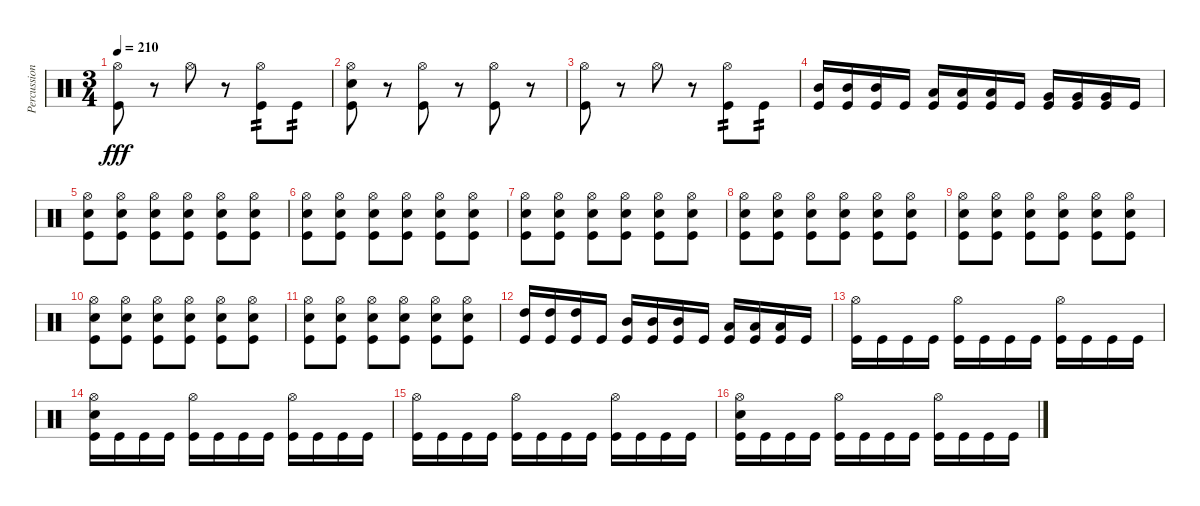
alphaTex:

\track ("Percussion" "Percussion") {instrument percussion}
\staff {score}
\articulation defaults
\ts (3 4)
\tempo 210
\clef neutral
\ks c
("Hi-Hat (open)" "Kick (hit)").8{dy fff} r.8 "Hi-Hat (open)".8 r.8 ("Hi-Hat (open)" "Kick (hit)").8{tp 2} "Kick (hit)".8{tp 2} |
("Hi-Hat (open)" "Electric Snare (hit)" "Kick (hit)").8 r.8 ("Hi-Hat (open)" "Kick (hit)").8 r.8 ("Hi-Hat (open)" "Kick (hit)").8 r.8 |
("Hi-Hat (open)" "Kick (hit)").8 r.8 "Hi-Hat (open)".8 r.8 ("Hi-Hat (open)" "Kick (hit)").8{tp 2} "Kick (hit)".8{tp 2} |
("Mid Tom (hit)" "Kick (hit)").16 ("Mid Tom (hit)" "Kick (hit)").16 ("Mid Tom (hit)" "Kick (hit)").16 "Kick (hit)".16 ("Low Tom (hit)" "Kick (hit)").16 ("Low Tom (hit)" "Kick (hit)").16 ("Low Tom (hit)" "Kick (hit)").16 "Kick (hit)".16 ("Very Low Tom (hit)" "Kick (hit)").16 ("Very Low Tom (hit)" "Kick (hit)").16 ("Very Low Tom (hit)" "Kick (hit)").16 "Kick (hit)".16 |
("Hi-Hat (open)" "Electric Snare (hit)" "Kick (hit)").8 ("Hi-Hat (open)" "Electric Snare (hit)" "Kick (hit)").8 ("Hi-Hat (open)" "Electric Snare (hit)" "Kick (hit)").8 ("Hi-Hat (open)" "Electric Snare (hit)" "Kick (hit)").8 ("Hi-Hat (open)" "Electric Snare (hit)" "Kick (hit)").8 ("Hi-Hat (open)" "Electric Snare (hit)" "Kick (hit)").8 |
("Hi-Hat (open)" "Electric Snare (hit)" "Kick (hit)").8 ("Hi-Hat (open)" "Electric Snare (hit)" "Kick (hit)").8 ("Hi-Hat (open)" "Electric Snare (hit)" "Kick (hit)").8 ("Hi-Hat (open)" "Electric Snare (hit)" "Kick (hit)").8 ("Hi-Hat (open)" "Electric Snare (hit)" "Kick (hit)").8 ("Hi-Hat (open)" "Electric Snare (hit)" "Kick (hit)").8 |
("Hi-Hat (open)" "Electric Snare (hit)" "Kick (hit)").8 ("Hi-Hat (open)" "Electric Snare (hit)" "Kick (hit)").8 ("Hi-Hat (open)" "Electric Snare (hit)" "Kick (hit)").8 ("Hi-Hat (open)" "Electric Snare (hit)" "Kick (hit)").8 ("Hi-Hat (open)" "Electric Snare (hit)" "Kick (hit)").8 ("Hi-Hat (open)" "Electric Snare (hit)" "Kick (hit)").8 |
("Hi-Hat (open)" "Electric Snare (hit)" "Kick (hit)").8 ("Hi-Hat (open)" "Electric Snare (hit)" "Kick (hit)").8 ("Hi-Hat (open)" "Electric Snare (hit)" "Kick (hit)").8 ("Hi-Hat (open)" "Electric Snare (hit)" "Kick (hit)").8 ("Hi-Hat (open)" "Electric Snare (hit)" "Kick (hit)").8 ("Hi-Hat (open)" "Electric Snare (hit)" "Kick (hit)").8 |
("Hi-Hat (open)" "Electric Snare (hit)" "Kick (hit)").8 ("Hi-Hat (open)" "Electric Snare (hit)" "Kick (hit)").8 ("Hi-Hat (open)" "Electric Snare (hit)" "Kick (hit)").8 ("Hi-Hat (open)" "Electric Snare (hit)" "Kick (hit)").8 ("Hi-Hat (open)" "Electric Snare (hit)" "Kick (hit)").8 ("Hi-Hat (open)" "Electric Snare (hit)" "Kick (hit)").8 |
("Hi-Hat (open)" "Electric Snare (hit)" "Kick (hit)").8 ("Hi-Hat (open)" "Electric Snare (hit)" "Kick (hit)").8 ("Hi-Hat (open)" "Electric Snare (hit)" "Kick (hit)").8 ("Hi-Hat (open)" "Electric Snare (hit)" "Kick (hit)").8 ("Hi-Hat (open)" "Electric Snare (hit)" "Kick (hit)").8 ("Hi-Hat (open)" "Electric Snare (hit)" "Kick (hit)").8 |
("Hi-Hat (open)" "Electric Snare (hit)" "Kick (hit)").8 ("Hi-Hat (open)" "Electric Snare (hit)" "Kick (hit)").8 ("Hi-Hat (open)" "Electric Snare (hit)" "Kick (hit)").8 ("Hi-Hat (open)" "Electric Snare (hit)" "Kick (hit)").8 ("Hi-Hat (open)" "Electric Snare (hit)" "Kick (hit)").8 ("Hi-Hat (open)" "Electric Snare (hit)" "Kick (hit)").8 |
("High Tom (hit)" "Kick (hit)").16 ("High Tom (hit)" "Kick (hit)").16 ("High Tom (hit)" "Kick (hit)").16 "Kick (hit)".16 ("Mid Tom (hit)" "Kick (hit)").16 ("Mid Tom (hit)" "Kick (hit)").16 ("Mid Tom (hit)" "Kick (hit)").16 "Kick (hit)".16 ("Low Tom (hit)" "Kick (hit)").16 ("Low Tom (hit)" "Kick (hit)").16 ("Low Tom (hit)" "Kick (hit)").16 "Kick (hit)".16 |
("Hi-Hat (open)" "Kick (hit)").16 "Kick (hit)".16 "Kick (hit)".16 "Kick (hit)".16 ("Hi-Hat (open)" "Kick (hit)").16 "Kick (hit)".16 "Kick (hit)".16 "Kick (hit)".16 ("Hi-Hat (open)" "Kick (hit)").16 "Kick (hit)".16 "Kick (hit)".16 "Kick (hit)".16 |
("Hi-Hat (open)" "Electric Snare (hit)" "Kick (hit)").16 "Kick (hit)".16 "Kick (hit)".16 "Kick (hit)".16 ("Hi-Hat (open)" "Kick (hit)").16 "Kick (hit)".16 "Kick (hit)".16 "Kick (hit)".16 ("Hi-Hat (open)" "Kick (hit)").16 "Kick (hit)".16 "Kick (hit)".16 "Kick (hit)".16 |
("Hi-Hat (open)" "Kick (hit)").16 "Kick (hit)".16 "Kick (hit)".16 "Kick (hit)".16 ("Hi-Hat (open)" "Kick (hit)").16 "Kick (hit)".16 "Kick (hit)".16 "Kick (hit)".16 ("Hi-Hat (open)" "Kick (hit)").16 "Kick (hit)".16 "Kick (hit)".16 "Kick (hit)".16 |
("Hi-Hat (open)" "Electric Snare (hit)" "Kick (hit)").16 "Kick (hit)".16 "Kick (hit)".16 "Kick (hit)".16 ("Hi-Hat (open)" "Kick (hit)").16 "Kick (hit)".16 "Kick (hit)".16 "Kick (hit)".16 ("Hi-Hat (open)" "Kick (hit)").16 "Kick (hit)".16 "Kick (hit)".16 "Kick (hit)".16
